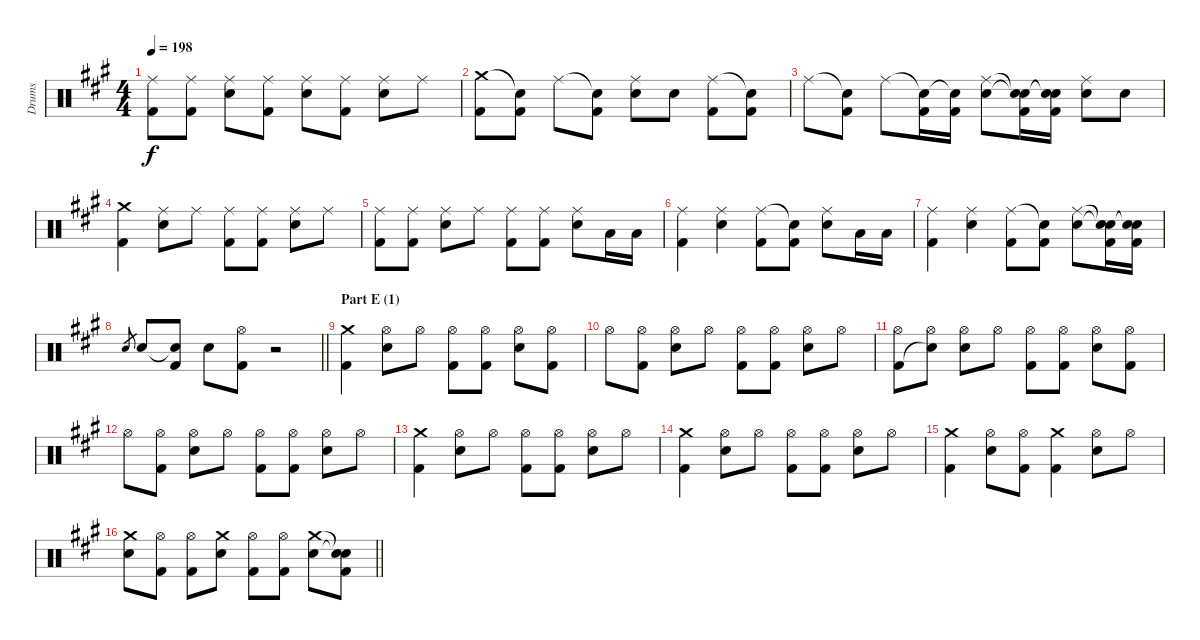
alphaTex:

\track ("Drums" "Drums") {instrument percussion}
\staff {score}
\articulation defaults
\ts (4 4)
\tempo 198
\clef neutral
\ks a
("Ride (middle)" "Kick (hit) 2").8{dy f} ("Ride (middle)" "Kick (hit) 2").8 ("Ride (middle)" "Electric Snare (hit)").8 ("Ride (middle)" "Kick (hit) 2").8 ("Ride (middle)" "Electric Snare (hit)").8 ("Ride (middle)" "Kick (hit) 2").8 ("Ride (middle)" "Electric Snare (hit)").8 "Ride (middle)".8 |
("Crash medium (hit)" "Kick (hit) 2").8 ("Snare (hit)"{t} "Kick (hit) 2").8 "Ride (middle)".8 ("Snare (hit)"{t} "Kick (hit) 2").8 ("Ride (middle)" "Electric Snare (hit)").8 "Electric Snare (hit)".8 ("Ride (middle)" "Kick (hit) 2").8 ("Snare (hit)"{t} "Kick (hit) 2").8 |
"Ride (middle)".8 ("Snare (hit)"{t} "Kick (hit) 2").8 "Ride (middle)".8 ("Snare (hit)"{t} "Kick (hit) 2").16 ("Snare (hit)"{t} "Kick (hit) 2").16 ("Ride (middle)" "Electric Snare (hit)").8 ("Snare (hit)"{t} "Snare (hit)"{t} "Kick (hit) 2").16 ("Snare (hit)"{t} "Snare (hit)"{t} "Kick (hit) 2").16 ("Ride (middle)" "Electric Snare (hit)").8 "Electric Snare (hit)".8 |
("Crash medium (hit)" "Kick (hit) 2").4 ("Ride (middle)" "Electric Snare (hit)").8 "Ride (middle)".8 ("Ride (middle)" "Kick (hit) 2").8 ("Ride (middle)" "Kick (hit) 2").8 ("Ride (middle)" "Electric Snare (hit)").8 "Ride (middle)".8 |
("Ride (middle)" "Kick (hit) 2").8 ("Ride (middle)" "Kick (hit) 2").8 ("Ride (middle)" "Electric Snare (hit)").8 "Ride (middle)".8 ("Ride (middle)" "Kick (hit) 2").8 ("Ride (middle)" "Kick (hit) 2").8 ("Ride (middle)" "Electric Snare (hit)").8 "Low Floor Tom (hit)".16 "Low Floor Tom (hit)".16 |
("Ride (middle)" "Kick (hit) 2").4 ("Ride (middle)" "Electric Snare (hit)").4 ("Ride (middle)" "Kick (hit) 2").8 ("Snare (hit)"{t} "Kick (hit) 2").8 ("Ride (middle)" "Electric Snare (hit)").8 "Low Floor Tom (hit)".16 "Low Floor Tom (hit)".16 |
("Ride (middle)" "Kick (hit) 2").4 ("Ride (middle)" "Electric Snare (hit)").4 ("Ride (middle)" "Kick (hit) 2").8 ("Snare (hit)"{t} "Kick (hit) 2").8 ("Ride (middle)" "Electric Snare (hit)").8 ("Snare (hit)"{t} "Snare (hit)"{t} "Kick (hit) 2").16 ("Snare (hit)"{t} "Snare (hit)"{t} "Kick (hit) 2").16 |
\barLineRight lightlight "Electric Snare (hit)".8{gr} "Electric Snare (hit)".8
("Snare (hit)"{t} "Kick (hit) 2").8 "Electric Snare (hit)".8 ("Hi-Hat (open)" "Kick (hit) 2").8 r.2 |
\section ("" "Part E (1)")
("Crash medium (hit)" "Kick (hit) 2").4 ("Hi-Hat (open)" "Electric Snare (hit)").8 "Hi-Hat (open)".8 ("Hi-Hat (open)" "Kick (hit) 2").8 ("Hi-Hat (open)" "Kick (hit) 2").8 ("Hi-Hat (open)" "Electric Snare (hit)").8 ("Hi-Hat (open)" "Kick (hit) 2").8 |
"Hi-Hat (open)".8 ("Hi-Hat (open)" "Kick (hit) 2").8 ("Hi-Hat (open)" "Electric Snare (hit)").8 "Hi-Hat (open)".8 ("Hi-Hat (open)" "Kick (hit) 2").8 ("Hi-Hat (open)" "Kick (hit) 2").8 ("Hi-Hat (open)" "Electric Snare (hit)").8 "Hi-Hat (open)".8 |
("Hi-Hat (open)" "Kick (hit) 2").8 ("Hi-Hat (open)" "Snare (hit)"{t}).8 ("Hi-Hat (open)" "Electric Snare (hit)").8 "Hi-Hat (open)".8 ("Hi-Hat (open)" "Kick (hit) 2").8 ("Hi-Hat (open)" "Kick (hit) 2").8 ("Hi-Hat (open)" "Electric Snare (hit)").8 ("Hi-Hat (open)" "Kick (hit) 2").8 |
"Hi-Hat (open)".8 ("Hi-Hat (open)" "Kick (hit) 2").8 ("Hi-Hat (open)" "Electric Snare (hit)").8 "Hi-Hat (open)".8 ("Hi-Hat (open)" "Kick (hit) 2").8 ("Hi-Hat (open)" "Kick (hit) 2").8 ("Hi-Hat (open)" "Electric Snare (hit)").8 "Hi-Hat (open)".8 |
("Crash medium (hit)" "Kick (hit) 2").4 ("Hi-Hat (open)" "Electric Snare (hit)").8 "Hi-Hat (open)".8 ("Hi-Hat (open)" "Kick (hit) 2").8 ("Hi-Hat (open)" "Kick (hit) 2").8 ("Hi-Hat (open)" "Electric Snare (hit)").8 "Hi-Hat (open)".8 |
("Crash medium (hit)" "Kick (hit) 2").4 ("Hi-Hat (open)" "Electric Snare (hit)").8 "Hi-Hat (open)".8 ("Hi-Hat (open)" "Kick (hit) 2").8 ("Hi-Hat (open)" "Kick (hit) 2").8 ("Hi-Hat (open)" "Electric Snare (hit)").8 "Hi-Hat (open)".8 |
("Crash medium (hit)" "Kick (hit) 2").4 ("Hi-Hat (open)" "Electric Snare (hit)").8 ("Hi-Hat (open)" "Kick (hit) 2").8 ("Crash medium (hit)" "Kick (hit) 2").4 ("Hi-Hat (open)" "Electric Snare (hit)").8 "Hi-Hat (open)".8 |
\barLineRight lightlight
("Crash medium (hit)" "Electric Snare (hit)").8 ("Hi-Hat (open)" "Kick (hit) 2").8 ("Hi-Hat (open)" "Kick (hit) 2").8 ("Crash medium (hit)" "Electric Snare (hit)").8 ("Hi-Hat (open)" "Kick (hit) 2").8 ("Hi-Hat (open)" "Kick (hit) 2").8 ("Crash medium (hit)" "Electric Snare (hit)").8 ("Snare (hit)"{t} "Snare (hit)"{t} "Kick (hit) 2").8
